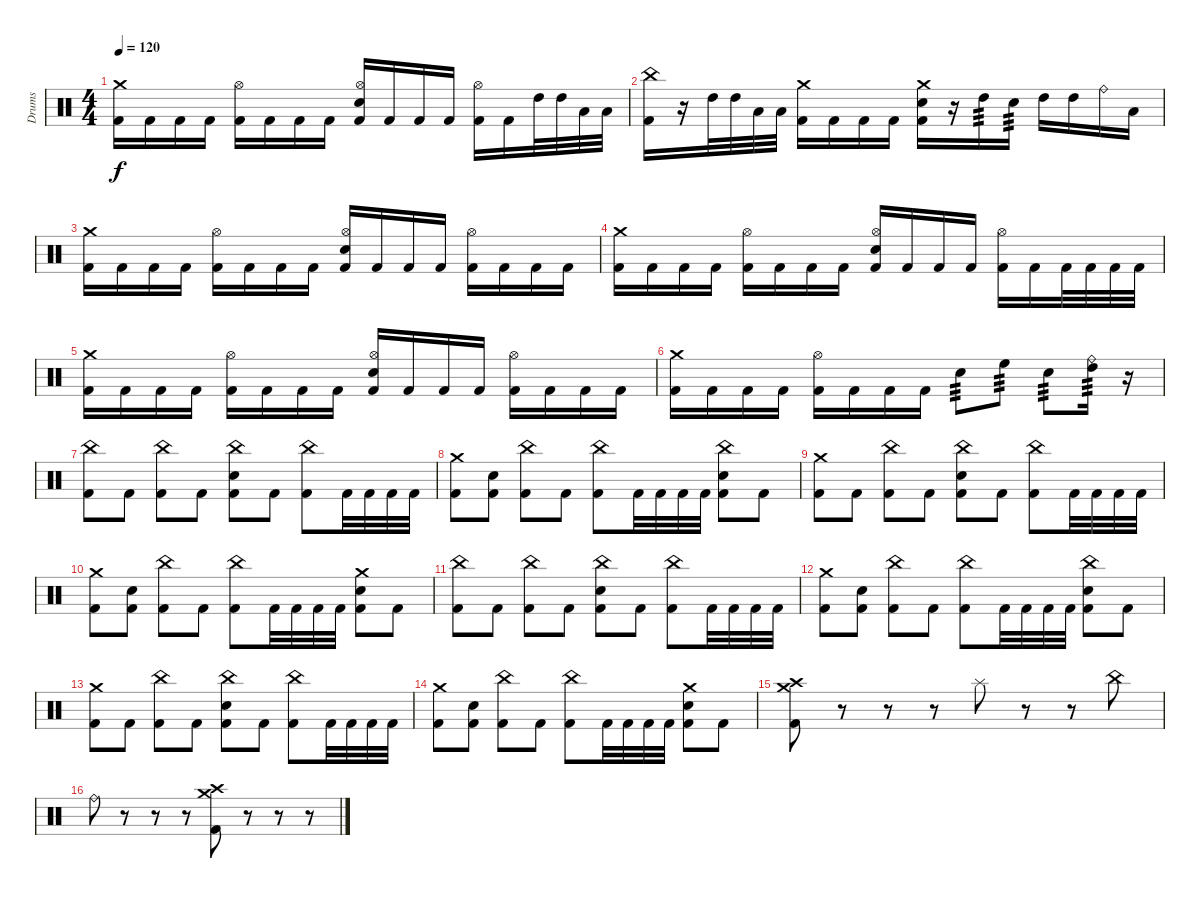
\track ("Drums" "Drums") {instrument percussion}
\staff {score}
\articulation defaults
\ts (4 4)
\tempo 120
\clef neutral
\ks c
("Crash medium (hit)" "Kick (hit) 2").16{dy f} "Kick (hit) 2".16 "Kick (hit) 2".16 "Kick (hit) 2".16 ("Hi-Hat (open)" "Kick (hit) 2").16 "Kick (hit) 2".16 "Kick (hit) 2".16 "Kick (hit) 2".16 ("Hi-Hat (open)" "Electric Snare (hit)" "Kick (hit) 2").16 "Kick (hit) 2".16 "Kick (hit) 2".16 "Kick (hit) 2".16 ("Hi-Hat (open)" "Kick (hit) 2").16 "Kick (hit) 2".16 "High Tom (hit)".32 "High Tom (hit)".32 "Low Tom (hit)".32 "Low Tom (hit)".32 |
("China (hit)" "Kick (hit) 2").16 r.16 "High Tom (hit)".32 "High Tom (hit)".32 "Low Tom (hit)".32 "Low Tom (hit)".32 ("Crash medium (hit)" "Kick (hit) 2").16 "Kick (hit) 2".16 "Kick (hit) 2".16 "Kick (hit) 2".16 ("Crash medium (hit)" "Electric Snare (hit)" "Kick (hit) 2").16 r.16 "High Tom (hit)".16{tp 3} "Electric Snare (hit)".16{tp 3} "High Tom (hit)".16 "High Tom (hit)".16 "Ride (bell)".16 "Low Tom (hit)".16 |
("Crash medium (hit)" "Kick (hit) 2").16 "Kick (hit) 2".16 "Kick (hit) 2".16 "Kick (hit) 2".16 ("Hi-Hat (open)" "Kick (hit) 2").16 "Kick (hit) 2".16 "Kick (hit) 2".16 "Kick (hit) 2".16 ("Hi-Hat (open)" "Electric Snare (hit)" "Kick (hit) 2").16 "Kick (hit) 2".16 "Kick (hit) 2".16 "Kick (hit) 2".16 ("Hi-Hat (open)" "Kick (hit) 2").16 "Kick (hit) 2".16 "Kick (hit) 2".16 "Kick (hit) 2".16 |
("Crash medium (hit)" "Kick (hit) 2").16 "Kick (hit) 2".16 "Kick (hit) 2".16 "Kick (hit) 2".16 ("Hi-Hat (open)" "Kick (hit) 2").16 "Kick (hit) 2".16 "Kick (hit) 2".16 "Kick (hit) 2".16 ("Hi-Hat (open)" "Electric Snare (hit)" "Kick (hit) 2").16 "Kick (hit) 2".16 "Kick (hit) 2".16 "Kick (hit) 2".16 ("Hi-Hat (open)" "Kick (hit) 2").16 "Kick (hit) 2".16 "Kick (hit) 2".32 "Kick (hit) 2".32 "Kick (hit) 2".32 "Kick (hit) 2".32 |
("Crash medium (hit)" "Kick (hit) 2").16 "Kick (hit) 2".16 "Kick (hit) 2".16 "Kick (hit) 2".16 ("Hi-Hat (open)" "Kick (hit) 2").16 "Kick (hit) 2".16 "Kick (hit) 2".16 "Kick (hit) 2".16 ("Hi-Hat (open)" "Electric Snare (hit)" "Kick (hit) 2").16 "Kick (hit) 2".16 "Kick (hit) 2".16 "Kick (hit) 2".16 ("Hi-Hat (open)" "Kick (hit) 2").16 "Kick (hit) 2".16 "Kick (hit) 2".16 "Kick (hit) 2".16 |
("Crash medium (hit)" "Kick (hit) 2").16 "Kick (hit) 2".16 "Kick (hit) 2".16 "Kick (hit) 2".16 ("Hi-Hat (open)" "Kick (hit) 2").16 "Kick (hit) 2".16 "Kick (hit) 2".16 "Kick (hit) 2".16 "Electric Snare (hit)".8{tp 3} "High Floor Tom (hit)".8{tp 3} "Electric Snare (hit)".8{tp 3} ("High Tom (hit)" "Ride (bell)").16{tp 3} r.16 |
("China (hit)" "Kick (hit) 2").8 "Kick (hit) 2".8 ("China (hit)" "Kick (hit) 2").8 "Kick (hit) 2".8 ("China (hit)" "Electric Snare (hit)" "Kick (hit) 2").8 "Kick (hit) 2".8 ("China (hit)" "Kick (hit) 2").8 "Kick (hit) 2".32 "Kick (hit) 2".32 "Kick (hit) 2".32 "Kick (hit) 2".32 |
("Crash medium (hit)" "Kick (hit) 2").8 ("Electric Snare (hit)" "Kick (hit) 2").8 ("China (hit)" "Kick (hit) 2").8 "Kick (hit) 2".8 ("China (hit)" "Kick (hit) 2").8 "Kick (hit) 2".32 "Kick (hit) 2".32 "Kick (hit) 2".32 "Kick (hit) 2".32 ("China (hit)" "Electric Snare (hit)" "Kick (hit) 2").8 "Kick (hit) 2".8 |
("Crash medium (hit)" "Kick (hit) 2").8 "Kick (hit) 2".8 ("China (hit)" "Kick (hit) 2").8 "Kick (hit) 2".8 ("China (hit)" "Electric Snare (hit)" "Kick (hit) 2").8 "Kick (hit) 2".8 ("China (hit)" "Kick (hit) 2").8 "Kick (hit) 2".32 "Kick (hit) 2".32 "Kick (hit) 2".32 "Kick (hit) 2".32 |
("Crash medium (hit)" "Kick (hit) 2").8 ("Electric Snare (hit)" "Kick (hit) 2").8 ("China (hit)" "Kick (hit) 2").8 "Kick (hit) 2".8 ("China (hit)" "Kick (hit) 2").8 "Kick (hit) 2".32 "Kick (hit) 2".32 "Kick (hit) 2".32 "Kick (hit) 2".32 ("Crash medium (hit)" "Electric Snare (hit)" "Kick (hit) 2").8 "Kick (hit) 2".8 |
("China (hit)" "Kick (hit) 2").8 "Kick (hit) 2".8 ("China (hit)" "Kick (hit) 2").8 "Kick (hit) 2".8 ("China (hit)" "Electric Snare (hit)" "Kick (hit) 2").8 "Kick (hit) 2".8 ("China (hit)" "Kick (hit) 2").8 "Kick (hit) 2".32 "Kick (hit) 2".32 "Kick (hit) 2".32 "Kick (hit) 2".32 |
("Crash medium (hit)" "Kick (hit) 2").8 ("Electric Snare (hit)" "Kick (hit) 2").8 ("China (hit)" "Kick (hit) 2").8 "Kick (hit) 2".8 ("China (hit)" "Kick (hit) 2").8 "Kick (hit) 2".32 "Kick (hit) 2".32 "Kick (hit) 2".32 "Kick (hit) 2".32 ("China (hit)" "Electric Snare (hit)" "Kick (hit) 2").8 "Kick (hit) 2".8 |
("Crash medium (hit)" "Kick (hit) 2").8 "Kick (hit) 2".8 ("China (hit)" "Kick (hit) 2").8 "Kick (hit) 2".8 ("China (hit)" "Electric Snare (hit)" "Kick (hit) 2").8 "Kick (hit) 2".8 ("China (hit)" "Kick (hit) 2").8 "Kick (hit) 2".32 "Kick (hit) 2".32 "Kick (hit) 2".32 "Kick (hit) 2".32 |
("Crash medium (hit)" "Kick (hit) 2").8 ("Electric Snare (hit)" "Kick (hit) 2").8 ("China (hit)" "Kick (hit) 2").8 "Kick (hit) 2".8 ("China (hit)" "Kick (hit) 2").8 "Kick (hit) 2".32 "Kick (hit) 2".32 "Kick (hit) 2".32 "Kick (hit) 2".32 ("Crash medium (hit)" "Electric Snare (hit)" "Kick (hit) 2").8 "Kick (hit) 2".8 |
("Crash medium (hit)" "Crash high (hit)" "Kick (hit) 2").8 r.8 r.8 r.8 "Splash (hit)".8 r.8 r.8 "China (hit)".8 |
"Ride (bell)".8 r.8 r.8 r.8 ("Crash medium (hit)" "Crash high (hit)" "Kick (hit) 2").8 r.8 r.8 r.8
